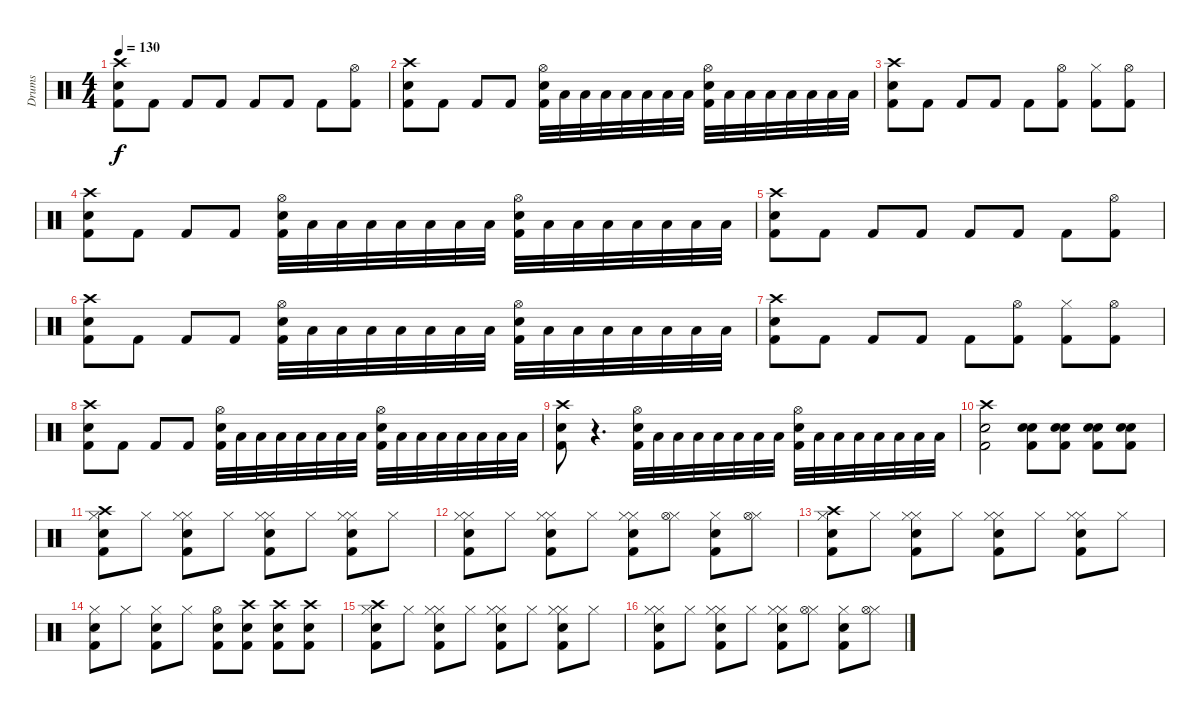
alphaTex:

\track ("Drums" "Drums") {instrument percussion}
\staff {score}
\articulation defaults
\ts (4 4)
\tempo 130
\clef neutral
\ks c
("Crash high (hit)" "Electric Snare (hit)" "Kick (hit) 2").8{dy f} "Kick (hit) 2".8 "Kick (hit) 2".8 "Kick (hit) 2".8 "Kick (hit) 2".8 "Kick (hit) 2".8 "Kick (hit) 2".8 ("Hi-Hat (open)" "Kick (hit) 2").8 |
("Crash high (hit)" "Electric Snare (hit)" "Kick (hit) 2").8 "Kick (hit) 2".8 "Kick (hit) 2".8 "Kick (hit) 2".8 ("Hi-Hat (open)" "Electric Snare (hit)" "Kick (hit) 2").32 "Low Floor Tom (hit)".32 "Low Floor Tom (hit)".32 "Low Floor Tom (hit)".32 "Low Floor Tom (hit)".32 "Low Floor Tom (hit)".32 "Low Floor Tom (hit)".32 "Low Floor Tom (hit)".32 ("Hi-Hat (open)" "Electric Snare (hit)" "Kick (hit) 2").32 "Low Floor Tom (hit)".32 "Low Floor Tom (hit)".32 "Low Floor Tom (hit)".32 "Low Floor Tom (hit)".32 "Low Floor Tom (hit)".32 "Low Floor Tom (hit)".32 "Low Floor Tom (hit)".32 |
("Crash high (hit)" "Electric Snare (hit)" "Kick (hit) 2").8 "Kick (hit) 2".8 "Kick (hit) 2".8 "Kick (hit) 2".8 "Kick (hit) 2".8 ("Hi-Hat (open)" "Kick (hit) 2").8 ("Hi-Hat (closed)" "Kick (hit) 2").8 ("Hi-Hat (open)" "Kick (hit) 2").8 |
("Crash high (hit)" "Electric Snare (hit)" "Kick (hit) 2").8 "Kick (hit) 2".8 "Kick (hit) 2".8 "Kick (hit) 2".8 ("Hi-Hat (open)" "Electric Snare (hit)" "Kick (hit) 2").32 "Low Floor Tom (hit)".32 "Low Floor Tom (hit)".32 "Low Floor Tom (hit)".32 "Low Floor Tom (hit)".32 "Low Floor Tom (hit)".32 "Low Floor Tom (hit)".32 "Low Floor Tom (hit)".32 ("Hi-Hat (open)" "Electric Snare (hit)" "Kick (hit) 2").32 "Low Floor Tom (hit)".32 "Low Floor Tom (hit)".32 "Low Floor Tom (hit)".32 "Low Floor Tom (hit)".32 "Low Floor Tom (hit)".32 "Low Floor Tom (hit)".32 "Low Floor Tom (hit)".32 |
("Crash high (hit)" "Electric Snare (hit)" "Kick (hit) 2").8 "Kick (hit) 2".8 "Kick (hit) 2".8 "Kick (hit) 2".8 "Kick (hit) 2".8 "Kick (hit) 2".8 "Kick (hit) 2".8 ("Hi-Hat (open)" "Kick (hit) 2").8 |
("Crash high (hit)" "Electric Snare (hit)" "Kick (hit) 2").8 "Kick (hit) 2".8 "Kick (hit) 2".8 "Kick (hit) 2".8 ("Hi-Hat (open)" "Electric Snare (hit)" "Kick (hit) 2").32 "Low Floor Tom (hit)".32 "Low Floor Tom (hit)".32 "Low Floor Tom (hit)".32 "Low Floor Tom (hit)".32 "Low Floor Tom (hit)".32 "Low Floor Tom (hit)".32 "Low Floor Tom (hit)".32 ("Hi-Hat (open)" "Electric Snare (hit)" "Kick (hit) 2").32 "Low Floor Tom (hit)".32 "Low Floor Tom (hit)".32 "Low Floor Tom (hit)".32 "Low Floor Tom (hit)".32 "Low Floor Tom (hit)".32 "Low Floor Tom (hit)".32 "Low Floor Tom (hit)".32 |
("Crash high (hit)" "Electric Snare (hit)" "Kick (hit) 2").8 "Kick (hit) 2".8 "Kick (hit) 2".8 "Kick (hit) 2".8 "Kick (hit) 2".8 ("Hi-Hat (open)" "Kick (hit) 2").8 ("Hi-Hat (closed)" "Kick (hit) 2").8 ("Hi-Hat (open)" "Kick (hit) 2").8 |
("Crash high (hit)" "Electric Snare (hit)" "Kick (hit) 2").8 "Kick (hit) 2".8 "Kick (hit) 2".8 "Kick (hit) 2".8 ("Hi-Hat (open)" "Electric Snare (hit)" "Kick (hit) 2").32 "Low Floor Tom (hit)".32 "Low Floor Tom (hit)".32 "Low Floor Tom (hit)".32 "Low Floor Tom (hit)".32 "Low Floor Tom (hit)".32 "Low Floor Tom (hit)".32 "Low Floor Tom (hit)".32 ("Hi-Hat (open)" "Electric Snare (hit)" "Kick (hit) 2").32 "Low Floor Tom (hit)".32 "Low Floor Tom (hit)".32 "Low Floor Tom (hit)".32 "Low Floor Tom (hit)".32 "Low Floor Tom (hit)".32 "Low Floor Tom (hit)".32 "Low Floor Tom (hit)".32 |
("Crash high (hit)" "Electric Snare (hit)" "Kick (hit) 2").8 r.4{d} ("Hi-Hat (open)" "Electric Snare (hit)" "Kick (hit) 2").32 "Low Floor Tom (hit)".32 "Low Floor Tom (hit)".32 "Low Floor Tom (hit)".32 "Low Floor Tom (hit)".32 "Low Floor Tom (hit)".32 "Low Floor Tom (hit)".32 "Low Floor Tom (hit)".32 ("Hi-Hat (open)" "Electric Snare (hit)" "Kick (hit) 2").32 "Low Floor Tom (hit)".32 "Low Floor Tom (hit)".32 "Low Floor Tom (hit)".32 "Low Floor Tom (hit)".32 "Low Floor Tom (hit)".32 "Low Floor Tom (hit)".32 "Low Floor Tom (hit)".32 |
("Crash high (hit)" "Electric Snare (hit)" "Kick (hit) 2").2 ("Snare (hit) 2" "Electric Snare (hit)" "Kick (hit) 2").8 ("Snare (hit) 2" "Electric Snare (hit)" "Kick (hit) 2").8 ("Snare (hit) 2" "Electric Snare (hit)" "Kick (hit) 2").8 ("Snare (hit) 2" "Electric Snare (hit)" "Kick (hit) 2").8 |
("Hi-Hat (closed)" "Crash high (hit)" "Electric Snare (hit)" "Kick (hit) 2").8 "Hi-Hat (closed)".8 ("Hi-Hat (closed)" "Hi-Hat (closed)" "Electric Snare (hit)" "Kick (hit) 2").8 "Hi-Hat (closed)".8 ("Hi-Hat (closed)" "Hi-Hat (closed)" "Electric Snare (hit)" "Kick (hit) 2").8 "Hi-Hat (closed)".8 ("Hi-Hat (closed)" "Hi-Hat (closed)" "Electric Snare (hit)" "Kick (hit) 2").8 "Hi-Hat (closed)".8 |
("Hi-Hat (closed)" "Hi-Hat (closed)" "Electric Snare (hit)" "Kick (hit) 2").8 "Hi-Hat (closed)".8 ("Hi-Hat (closed)" "Hi-Hat (closed)" "Electric Snare (hit)" "Kick (hit) 2").8 "Hi-Hat (closed)".8 ("Hi-Hat (closed)" "Hi-Hat (closed)" "Electric Snare (hit)" "Kick (hit) 2").8 ("Hi-Hat (closed)" "Hi-Hat (open)").8 ("Hi-Hat (closed)" "Electric Snare (hit)" "Kick (hit) 2").8 ("Hi-Hat (closed)" "Hi-Hat (open)").8 |
("Hi-Hat (closed)" "Crash high (hit)" "Electric Snare (hit)" "Kick (hit) 2").8 "Hi-Hat (closed)".8 ("Hi-Hat (closed)" "Hi-Hat (closed)" "Electric Snare (hit)" "Kick (hit) 2").8 "Hi-Hat (closed)".8 ("Hi-Hat (closed)" "Hi-Hat (closed)" "Electric Snare (hit)" "Kick (hit) 2").8 "Hi-Hat (closed)".8 ("Hi-Hat (closed)" "Hi-Hat (closed)" "Electric Snare (hit)" "Kick (hit) 2").8 "Hi-Hat (closed)".8 |
("Hi-Hat (closed)" "Electric Snare (hit)" "Kick (hit) 2").8 "Hi-Hat (closed)".8 ("Hi-Hat (closed)" "Electric Snare (hit)" "Kick (hit) 2").8 "Hi-Hat (closed)".8 ("Hi-Hat (open)" "Electric Snare (hit)" "Kick (hit) 2").8 ("Crash high (hit)" "Electric Snare (hit)" "Kick (hit) 2").8 ("Crash high (hit)" "Electric Snare (hit)" "Kick (hit) 2").8 ("Crash high (hit)" "Electric Snare (hit)" "Kick (hit) 2").8 |
("Hi-Hat (closed)" "Crash high (hit)" "Electric Snare (hit)" "Kick (hit) 2").8 "Hi-Hat (closed)".8 ("Hi-Hat (closed)" "Hi-Hat (closed)" "Electric Snare (hit)" "Kick (hit) 2").8 "Hi-Hat (closed)".8 ("Hi-Hat (closed)" "Hi-Hat (closed)" "Electric Snare (hit)" "Kick (hit) 2").8 "Hi-Hat (closed)".8 ("Hi-Hat (closed)" "Hi-Hat (closed)" "Electric Snare (hit)" "Kick (hit) 2").8 "Hi-Hat (closed)".8 |
("Hi-Hat (closed)" "Hi-Hat (closed)" "Electric Snare (hit)" "Kick (hit) 2").8 "Hi-Hat (closed)".8 ("Hi-Hat (closed)" "Hi-Hat (closed)" "Electric Snare (hit)" "Kick (hit) 2").8 "Hi-Hat (closed)".8 ("Hi-Hat (closed)" "Hi-Hat (closed)" "Electric Snare (hit)" "Kick (hit) 2").8 ("Hi-Hat (closed)" "Hi-Hat (open)").8 ("Hi-Hat (closed)" "Electric Snare (hit)" "Kick (hit) 2").8 ("Hi-Hat (closed)" "Hi-Hat (open)").8
